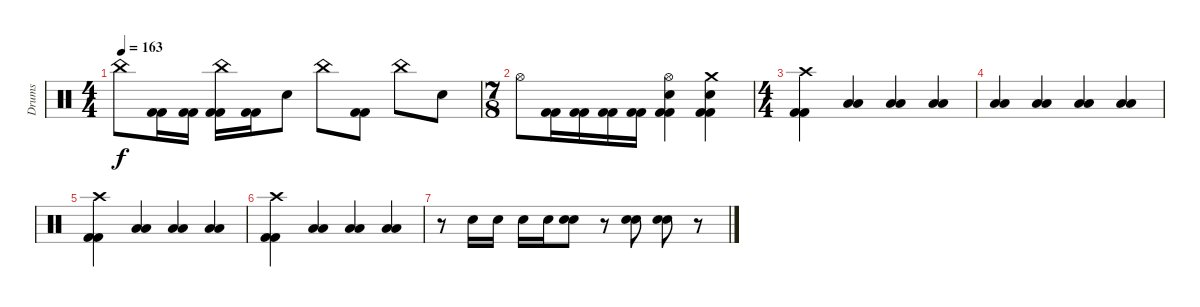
\track ("Drums" "Drums") {instrument percussion}
\staff {score}
\articulation defaults
\ts (4 4)
\tempo 163
\clef neutral
\ks c "China (hit)".8{dy f}
("Kick (hit) 2" "Kick (hit) 2").16 ("Kick (hit) 2" "Kick (hit) 2").16 ("China (hit)" "Kick (hit) 2" "Kick (hit) 2").16 ("Kick (hit) 2" "Kick (hit) 2").16 "Snare (hit) 2".8 "China (hit)".8 ("Kick (hit) 2" "Kick (hit) 2").8 "China (hit)".8 "Snare (hit) 2".8 |
\ts (7 8)
"Hi-Hat (open)".8 ("Kick (hit) 2" "Kick (hit) 2").16 ("Kick (hit) 2" "Kick (hit) 2").16 ("Kick (hit) 2" "Kick (hit) 2").16 ("Kick (hit) 2" "Kick (hit) 2").16 ("Hi-Hat (open)" "Snare (hit) 2" "Kick (hit) 2" "Kick (hit) 2").4 ("Crash medium (hit)" "Snare (hit) 2" "Kick (hit) 2" "Kick (hit) 2").4 |
\ts (4 4)
("Crash high (hit)" "Kick (hit) 2" "Kick (hit) 2").4 ("Low Floor Tom (hit)" "Low Floor Tom (hit)").4 ("Low Floor Tom (hit)" "Low Floor Tom (hit)").4 ("Low Floor Tom (hit)" "Low Floor Tom (hit)").4 |
("Low Floor Tom (hit)" "Low Floor Tom (hit)").4 ("Low Floor Tom (hit)" "Low Floor Tom (hit)").4 ("Low Floor Tom (hit)" "Low Floor Tom (hit)").4 ("Low Floor Tom (hit)" "Low Floor Tom (hit)").4 |
("Crash high (hit)" "Kick (hit) 2" "Kick (hit) 2").4 ("Low Floor Tom (hit)" "Low Floor Tom (hit)").4 ("Low Floor Tom (hit)" "Low Floor Tom (hit)").4 ("Low Floor Tom (hit)" "Low Floor Tom (hit)").4 |
("Crash high (hit)" "Kick (hit) 2" "Kick (hit) 2").4 ("Low Floor Tom (hit)" "Low Floor Tom (hit)").4 ("Low Floor Tom (hit)" "Low Floor Tom (hit)").4 ("Low Floor Tom (hit)" "Low Floor Tom (hit)").4 |
r.8 "Snare (hit) 2".16 "Snare (hit) 2".16 "Snare (hit) 2".16 "Snare (hit) 2".16 ("Snare (hit) 2" "Snare (hit) 2").8 r.8 ("Snare (hit) 2" "Snare (hit) 2").8 ("Snare (hit) 2" "Snare (hit) 2").8 r.8
